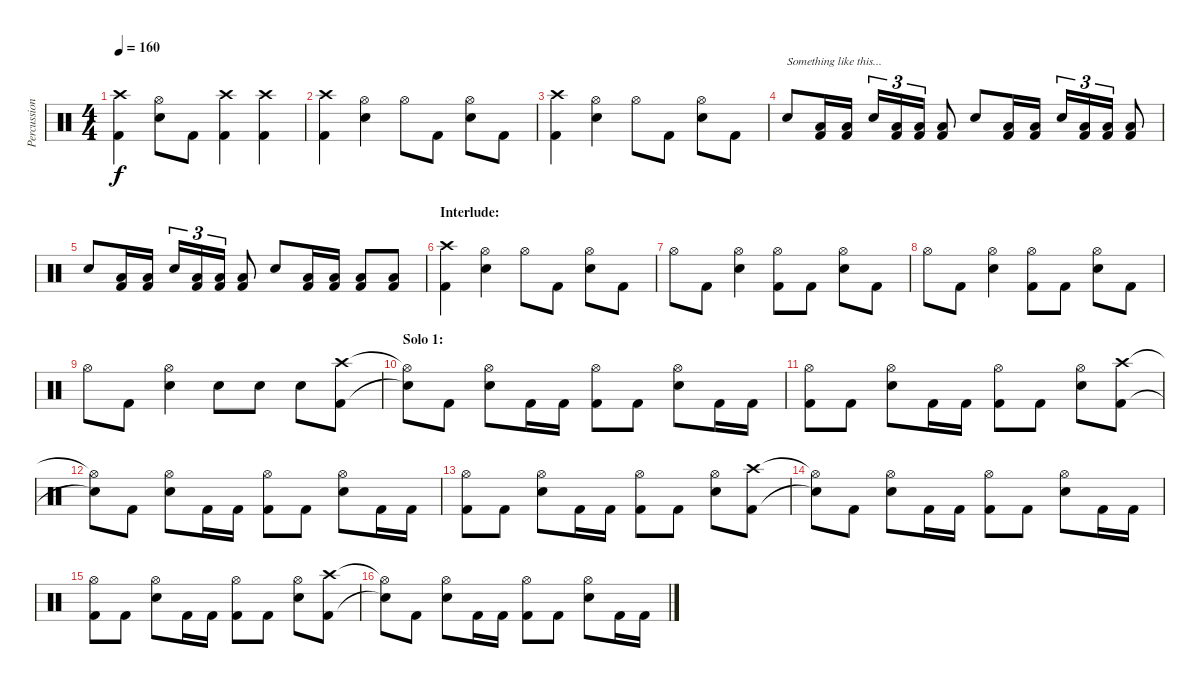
\track ("Percussion" "Percussion") {instrument percussion}
\staff {score}
\articulation defaults
\ts (4 4)
\tempo 160
\clef neutral
\ks c
("Crash high (hit)" "Kick (hit) 2").4{dy f} ("Hi-Hat (open)" "Snare (hit) 2").8 "Kick (hit) 2".8 ("Crash high (hit)" "Kick (hit) 2").4 ("Crash high (hit)" "Kick (hit) 2").4 |
("Crash high (hit)" "Kick (hit) 2").4 ("Hi-Hat (open)" "Snare (hit) 2").4 "Hi-Hat (open)".8 "Kick (hit) 2".8 ("Hi-Hat (open)" "Snare (hit) 2").8 "Kick (hit) 2".8 |
("Crash high (hit)" "Kick (hit) 2").4 ("Hi-Hat (open)" "Snare (hit) 2").4 "Hi-Hat (open)".8 "Kick (hit) 2".8 ("Hi-Hat (open)" "Snare (hit) 2").8 "Kick (hit) 2".8 |
"Snare (hit) 2".8{txt "Something like this..."} ("Low Floor Tom (hit)" "Kick (hit) 2").16 ("Low Floor Tom (hit)" "Kick (hit) 2").16 "Snare (hit) 2".16{tu (3 2)} ("Low Floor Tom (hit)" "Kick (hit) 2").16{tu (3 2)} ("Low Floor Tom (hit)" "Kick (hit) 2").16{tu (3 2)} ("Low Floor Tom (hit)" "Kick (hit) 2").8 "Snare (hit) 2".8 ("Low Floor Tom (hit)" "Kick (hit) 2").16 ("Low Floor Tom (hit)" "Kick (hit) 2").16 "Snare (hit) 2".16{tu (3 2)} ("Low Floor Tom (hit)" "Kick (hit) 2").16{tu (3 2)} ("Low Floor Tom (hit)" "Kick (hit) 2").16{tu (3 2)} ("Low Floor Tom (hit)" "Kick (hit) 2").8 |
"Snare (hit) 2".8 ("Low Floor Tom (hit)" "Kick (hit) 2").16 ("Low Floor Tom (hit)" "Kick (hit) 2").16 "Snare (hit) 2".16{tu (3 2)} ("Low Floor Tom (hit)" "Kick (hit) 2").16{tu (3 2)} ("Low Floor Tom (hit)" "Kick (hit) 2").16{tu (3 2)} ("Low Floor Tom (hit)" "Kick (hit) 2").8 "Snare (hit) 2".8 ("Low Floor Tom (hit)" "Kick (hit) 2").16 ("Low Floor Tom (hit)" "Kick (hit) 2").16 ("Low Floor Tom (hit)" "Kick (hit) 2").8 ("Low Floor Tom (hit)" "Kick (hit) 2").8 |
\section ("" "Interlude:")
("Crash high (hit)" "Kick (hit) 2").4 ("Hi-Hat (open)" "Snare (hit) 2").4 "Hi-Hat (open)".8 "Kick (hit) 2".8 ("Hi-Hat (open)" "Snare (hit) 2").8 "Kick (hit) 2".8 |
"Hi-Hat (open)".8 "Kick (hit) 2".8 ("Hi-Hat (open)" "Snare (hit) 2").4 ("Hi-Hat (open)" "Kick (hit) 2").8 "Kick (hit) 2".8 ("Hi-Hat (open)" "Snare (hit) 2").8 "Kick (hit) 2".8 |
"Hi-Hat (open)".8 "Kick (hit) 2".8 ("Hi-Hat (open)" "Snare (hit) 2").4 ("Hi-Hat (open)" "Kick (hit) 2").8 "Kick (hit) 2".8 ("Hi-Hat (open)" "Snare (hit) 2").8 "Kick (hit) 2".8 |
"Hi-Hat (open)".8 "Kick (hit) 2".8 ("Hi-Hat (open)" "Snare (hit) 2").4 "Snare (hit) 2".8 "Snare (hit) 2".8 "Snare (hit) 2".8 ("Crash high (hit)" "Kick (hit) 2").8 |
\section ("" "Solo 1:")
("Hi-Hat (open)"{t} "Snare (hit)"{t}).8 "Kick (hit) 2".8 ("Hi-Hat (open)" "Snare (hit) 2").8 "Kick (hit) 2".16 "Kick (hit) 2".16 ("Hi-Hat (open)" "Kick (hit) 2").8 "Kick (hit) 2".8 ("Hi-Hat (open)" "Snare (hit) 2").8 "Kick (hit) 2".16 "Kick (hit) 2".16 |
("Hi-Hat (open)" "Kick (hit) 2").8 "Kick (hit) 2".8 ("Hi-Hat (open)" "Snare (hit) 2").8 "Kick (hit) 2".16 "Kick (hit) 2".16 ("Hi-Hat (open)" "Kick (hit) 2").8 "Kick (hit) 2".8 ("Hi-Hat (open)" "Snare (hit) 2").8 ("Crash high (hit)" "Kick (hit) 2").8 |
("Hi-Hat (open)"{t} "Snare (hit)"{t}).8 "Kick (hit) 2".8 ("Hi-Hat (open)" "Snare (hit) 2").8 "Kick (hit) 2".16 "Kick (hit) 2".16 ("Hi-Hat (open)" "Kick (hit) 2").8 "Kick (hit) 2".8 ("Hi-Hat (open)" "Snare (hit) 2").8 "Kick (hit) 2".16 "Kick (hit) 2".16 |
("Hi-Hat (open)" "Kick (hit) 2").8 "Kick (hit) 2".8 ("Hi-Hat (open)" "Snare (hit) 2").8 "Kick (hit) 2".16 "Kick (hit) 2".16 ("Hi-Hat (open)" "Kick (hit) 2").8 "Kick (hit) 2".8 ("Hi-Hat (open)" "Snare (hit) 2").8 ("Crash high (hit)" "Kick (hit) 2").8 |
("Hi-Hat (open)"{t} "Snare (hit)"{t}).8 "Kick (hit) 2".8 ("Hi-Hat (open)" "Snare (hit) 2").8 "Kick (hit) 2".16 "Kick (hit) 2".16 ("Hi-Hat (open)" "Kick (hit) 2").8 "Kick (hit) 2".8 ("Hi-Hat (open)" "Snare (hit) 2").8 "Kick (hit) 2".16 "Kick (hit) 2".16 |
("Hi-Hat (open)" "Kick (hit) 2").8 "Kick (hit) 2".8 ("Hi-Hat (open)" "Snare (hit) 2").8 "Kick (hit) 2".16 "Kick (hit) 2".16 ("Hi-Hat (open)" "Kick (hit) 2").8 "Kick (hit) 2".8 ("Hi-Hat (open)" "Snare (hit) 2").8 ("Crash high (hit)" "Kick (hit) 2").8 |
("Hi-Hat (open)"{t} "Snare (hit)"{t}).8 "Kick (hit) 2".8 ("Hi-Hat (open)" "Snare (hit) 2").8 "Kick (hit) 2".16 "Kick (hit) 2".16 ("Hi-Hat (open)" "Kick (hit) 2").8 "Kick (hit) 2".8 ("Hi-Hat (open)" "Snare (hit) 2").8 "Kick (hit) 2".16 "Kick (hit) 2".16
